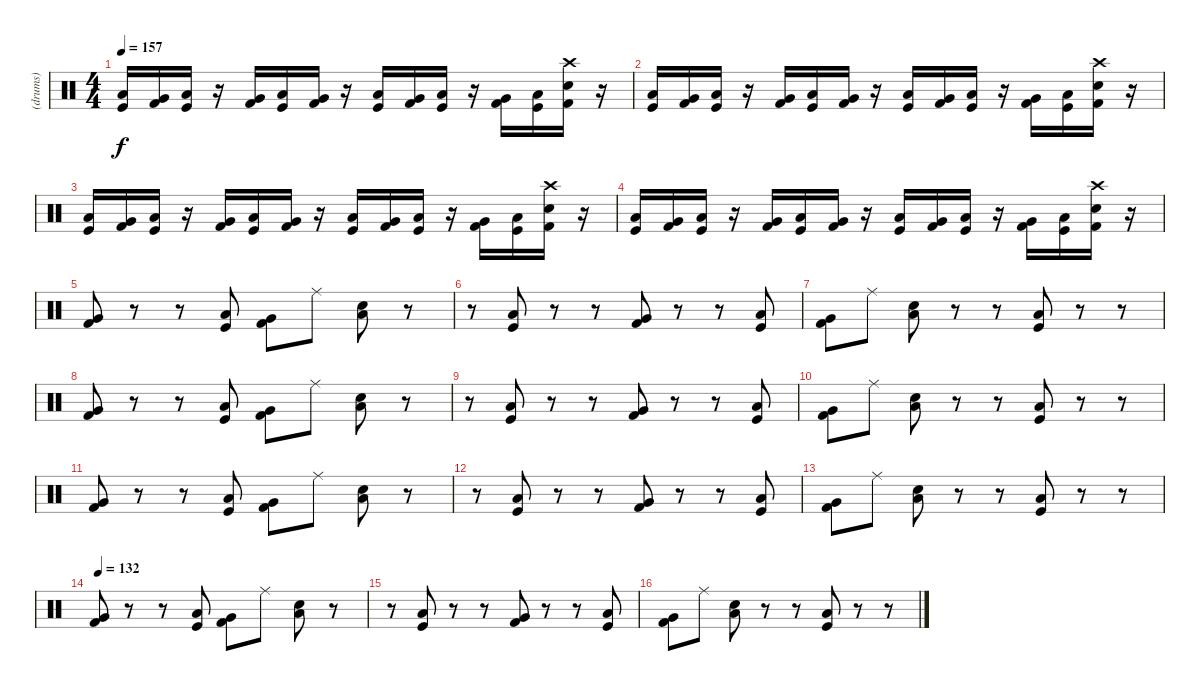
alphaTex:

\track ("(drums)" "(drums)") {instrument percussion}
\staff {score}
\articulation defaults
\ts (4 4)
\tempo 157
\clef neutral
\ks c
("Kick (hit)" "Low Tom (hit)").16{dy f} ("Kick (hit) 2" "Very Low Tom (hit)").16 ("Kick (hit)" "Low Tom (hit)").16 r.16 ("Kick (hit) 2" "Very Low Tom (hit)").16 ("Kick (hit)" "Low Tom (hit)").16 ("Kick (hit) 2" "Very Low Tom (hit)").16 r.16 ("Kick (hit)" "Low Tom (hit)").16 ("Kick (hit) 2" "Very Low Tom (hit)").16 ("Kick (hit)" "Low Tom (hit)").16 r.16 ("Kick (hit) 2" "Very Low Tom (hit)").16 ("Kick (hit)" "Low Tom (hit)").16 ("Kick (hit) 2" "Snare (hit) 2" "Crash high (hit)").16 r.16 |
("Kick (hit)" "Low Tom (hit)").16 ("Kick (hit) 2" "Very Low Tom (hit)").16 ("Kick (hit)" "Low Tom (hit)").16 r.16 ("Kick (hit) 2" "Very Low Tom (hit)").16 ("Kick (hit)" "Low Tom (hit)").16 ("Kick (hit) 2" "Very Low Tom (hit)").16 r.16 ("Kick (hit)" "Low Tom (hit)").16 ("Kick (hit) 2" "Very Low Tom (hit)").16 ("Kick (hit)" "Low Tom (hit)").16 r.16 ("Kick (hit) 2" "Very Low Tom (hit)").16 ("Kick (hit)" "Low Tom (hit)").16 ("Kick (hit) 2" "Snare (hit) 2" "Crash high (hit)").16 r.16 |
("Kick (hit)" "Low Tom (hit)").16 ("Kick (hit) 2" "Very Low Tom (hit)").16 ("Kick (hit)" "Low Tom (hit)").16 r.16 ("Kick (hit) 2" "Very Low Tom (hit)").16 ("Kick (hit)" "Low Tom (hit)").16 ("Kick (hit) 2" "Very Low Tom (hit)").16 r.16 ("Kick (hit)" "Low Tom (hit)").16 ("Kick (hit) 2" "Very Low Tom (hit)").16 ("Kick (hit)" "Low Tom (hit)").16 r.16 ("Kick (hit) 2" "Very Low Tom (hit)").16 ("Kick (hit)" "Low Tom (hit)").16 ("Kick (hit) 2" "Snare (hit) 2" "Crash high (hit)").16 r.16 |
("Kick (hit)" "Low Tom (hit)").16 ("Kick (hit) 2" "Very Low Tom (hit)").16 ("Kick (hit)" "Low Tom (hit)").16 r.16 ("Kick (hit) 2" "Very Low Tom (hit)").16 ("Kick (hit)" "Low Tom (hit)").16 ("Kick (hit) 2" "Very Low Tom (hit)").16 r.16 ("Kick (hit)" "Low Tom (hit)").16 ("Kick (hit) 2" "Very Low Tom (hit)").16 ("Kick (hit)" "Low Tom (hit)").16 r.16 ("Kick (hit) 2" "Very Low Tom (hit)").16 ("Kick (hit)" "Low Tom (hit)").16 ("Kick (hit) 2" "Snare (hit) 2" "Crash high (hit)").16 r.16 |
("Kick (hit) 2" "Very Low Tom (hit)").8 r.8 r.8 ("Kick (hit)" "Low Tom (hit)").8 ("Kick (hit) 2" "Very Low Tom (hit)").8 "Ride (middle)".8 ("Snare (hit) 2" "Low Floor Tom (hit)").8 r.8 |
r.8 ("Kick (hit)" "Low Tom (hit)").8 r.8 r.8 ("Kick (hit) 2" "Very Low Tom (hit)").8 r.8 r.8 ("Kick (hit)" "Low Tom (hit)").8 |
("Kick (hit) 2" "Very Low Tom (hit)").8 "Ride (middle)".8 ("Snare (hit) 2" "Low Floor Tom (hit)").8 r.8 r.8 ("Kick (hit)" "Low Tom (hit)").8 r.8 r.8 |
("Kick (hit) 2" "Very Low Tom (hit)").8 r.8 r.8 ("Kick (hit)" "Low Tom (hit)").8 ("Kick (hit) 2" "Very Low Tom (hit)").8 "Ride (middle)".8 ("Snare (hit) 2" "Low Floor Tom (hit)").8 r.8 |
r.8 ("Kick (hit)" "Low Tom (hit)").8 r.8 r.8 ("Kick (hit) 2" "Very Low Tom (hit)").8 r.8 r.8 ("Kick (hit)" "Low Tom (hit)").8 |
("Kick (hit) 2" "Very Low Tom (hit)").8 "Ride (middle)".8 ("Snare (hit) 2" "Low Floor Tom (hit)").8 r.8 r.8 ("Kick (hit)" "Low Tom (hit)").8 r.8 r.8 |
("Kick (hit) 2" "Very Low Tom (hit)").8 r.8 r.8 ("Kick (hit)" "Low Tom (hit)").8 ("Kick (hit) 2" "Very Low Tom (hit)").8 "Ride (middle)".8 ("Snare (hit) 2" "Low Floor Tom (hit)").8 r.8 |
r.8 ("Kick (hit)" "Low Tom (hit)").8 r.8 r.8 ("Kick (hit) 2" "Very Low Tom (hit)").8 r.8 r.8 ("Kick (hit)" "Low Tom (hit)").8 |
("Kick (hit) 2" "Very Low Tom (hit)").8 "Ride (middle)".8 ("Snare (hit) 2" "Low Floor Tom (hit)").8 r.8 r.8 ("Kick (hit)" "Low Tom (hit)").8 r.8 r.8 |
\tempo 132
("Kick (hit) 2" "Very Low Tom (hit)").8 r.8 r.8 ("Kick (hit)" "Low Tom (hit)").8 ("Kick (hit) 2" "Very Low Tom (hit)").8 "Ride (middle)".8 ("Snare (hit) 2" "Low Floor Tom (hit)").8 r.8 |
r.8 ("Kick (hit)" "Low Tom (hit)").8 r.8 r.8 ("Kick (hit) 2" "Very Low Tom (hit)").8 r.8 r.8 ("Kick (hit)" "Low Tom (hit)").8 |
("Kick (hit) 2" "Very Low Tom (hit)").8 "Ride (middle)".8 ("Snare (hit) 2" "Low Floor Tom (hit)").8 r.8 r.8 ("Kick (hit)" "Low Tom (hit)").8 r.8 r.8
